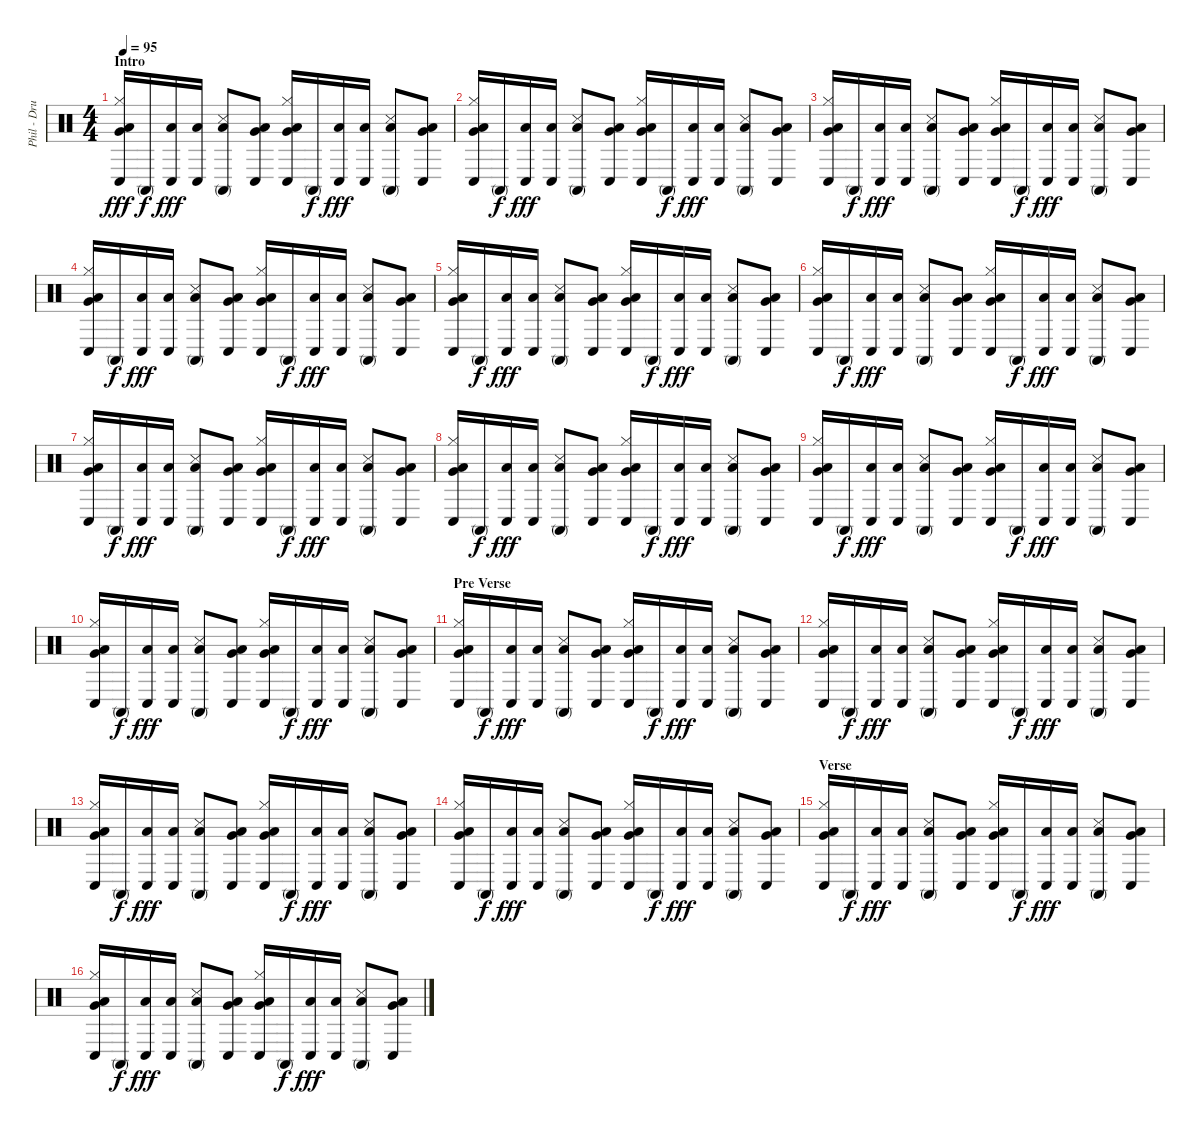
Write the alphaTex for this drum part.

\track ("Phil - Drums" "Phil - Dru") {instrument percussion}
\staff {score}
\articulation defaults
\ts (4 4)
\section ("" "Intro")
\tempo 95
\clef neutral
\ks c
("Hi-Hat (closed)" "Conga low (hit)" "Low Floor Tom (hit)" "Very Low Tom (hit)").16{dy fff} "Conga high (mute)".16{dy f} ("Conga low (hit)" "Low Tom (hit)").16{dy fff} ("Conga low (hit)" "Low Tom (hit)").16 ("Conga high (mute)" "Snare (side stick) 3" "Low Tom (hit)").8 ("Conga low (hit)" "Low Floor Tom (hit)" "Very Low Tom (hit)").8 ("Hi-Hat (closed)" "Conga low (hit)" "Low Floor Tom (hit)" "Very Low Tom (hit)").16 "Conga high (mute)".16{dy f} ("Conga low (hit)" "Low Tom (hit)").16{dy fff} ("Conga low (hit)" "Low Tom (hit)").16 ("Conga high (mute)" "Snare (side stick) 3" "Low Tom (hit)").8 ("Conga low (hit)" "Low Floor Tom (hit)" "Very Low Tom (hit)").8 |
("Hi-Hat (closed)" "Conga low (hit)" "Low Floor Tom (hit)" "Very Low Tom (hit)").16 "Conga high (mute)".16{dy f} ("Conga low (hit)" "Low Tom (hit)").16{dy fff} ("Conga low (hit)" "Low Tom (hit)").16 ("Conga high (mute)" "Snare (side stick) 3" "Low Tom (hit)").8 ("Conga low (hit)" "Low Floor Tom (hit)" "Very Low Tom (hit)").8 ("Hi-Hat (closed)" "Conga low (hit)" "Low Floor Tom (hit)" "Very Low Tom (hit)").16 "Conga high (mute)".16{dy f} ("Conga low (hit)" "Low Tom (hit)").16{dy fff} ("Conga low (hit)" "Low Tom (hit)").16 ("Conga high (mute)" "Snare (side stick) 3" "Low Tom (hit)").8 ("Conga low (hit)" "Low Floor Tom (hit)" "Very Low Tom (hit)").8 |
("Hi-Hat (closed)" "Conga low (hit)" "Low Floor Tom (hit)" "Very Low Tom (hit)").16 "Conga high (mute)".16{dy f} ("Conga low (hit)" "Low Tom (hit)").16{dy fff} ("Conga low (hit)" "Low Tom (hit)").16 ("Conga high (mute)" "Snare (side stick) 3" "Low Tom (hit)").8 ("Conga low (hit)" "Low Floor Tom (hit)" "Very Low Tom (hit)").8 ("Hi-Hat (closed)" "Conga low (hit)" "Low Floor Tom (hit)" "Very Low Tom (hit)").16 "Conga high (mute)".16{dy f} ("Conga low (hit)" "Low Tom (hit)").16{dy fff} ("Conga low (hit)" "Low Tom (hit)").16 ("Conga high (mute)" "Snare (side stick) 3" "Low Tom (hit)").8 ("Conga low (hit)" "Low Floor Tom (hit)" "Very Low Tom (hit)").8 |
("Hi-Hat (closed)" "Conga low (hit)" "Low Floor Tom (hit)" "Very Low Tom (hit)").16 "Conga high (mute)".16{dy f} ("Conga low (hit)" "Low Tom (hit)").16{dy fff} ("Conga low (hit)" "Low Tom (hit)").16 ("Conga high (mute)" "Snare (side stick) 3" "Low Tom (hit)").8 ("Conga low (hit)" "Low Floor Tom (hit)" "Very Low Tom (hit)").8 ("Hi-Hat (closed)" "Conga low (hit)" "Low Floor Tom (hit)" "Very Low Tom (hit)").16 "Conga high (mute)".16{dy f} ("Conga low (hit)" "Low Tom (hit)").16{dy fff} ("Conga low (hit)" "Low Tom (hit)").16 ("Conga high (mute)" "Snare (side stick) 3" "Low Tom (hit)").8 ("Conga low (hit)" "Low Floor Tom (hit)" "Very Low Tom (hit)").8 |
("Hi-Hat (closed)" "Conga low (hit)" "Low Floor Tom (hit)" "Very Low Tom (hit)").16 "Conga high (mute)".16{dy f} ("Conga low (hit)" "Low Tom (hit)").16{dy fff} ("Conga low (hit)" "Low Tom (hit)").16 ("Conga high (mute)" "Snare (side stick) 3" "Low Tom (hit)").8 ("Conga low (hit)" "Low Floor Tom (hit)" "Very Low Tom (hit)").8 ("Hi-Hat (closed)" "Conga low (hit)" "Low Floor Tom (hit)" "Very Low Tom (hit)").16 "Conga high (mute)".16{dy f} ("Conga low (hit)" "Low Tom (hit)").16{dy fff} ("Conga low (hit)" "Low Tom (hit)").16 ("Conga high (mute)" "Snare (side stick) 3" "Low Tom (hit)").8 ("Conga low (hit)" "Low Floor Tom (hit)" "Very Low Tom (hit)").8 |
("Hi-Hat (closed)" "Conga low (hit)" "Low Floor Tom (hit)" "Very Low Tom (hit)").16 "Conga high (mute)".16{dy f} ("Conga low (hit)" "Low Tom (hit)").16{dy fff} ("Conga low (hit)" "Low Tom (hit)").16 ("Conga high (mute)" "Snare (side stick) 3" "Low Tom (hit)").8 ("Conga low (hit)" "Low Floor Tom (hit)" "Very Low Tom (hit)").8 ("Hi-Hat (closed)" "Conga low (hit)" "Low Floor Tom (hit)" "Very Low Tom (hit)").16 "Conga high (mute)".16{dy f} ("Conga low (hit)" "Low Tom (hit)").16{dy fff} ("Conga low (hit)" "Low Tom (hit)").16 ("Conga high (mute)" "Snare (side stick) 3" "Low Tom (hit)").8 ("Conga low (hit)" "Low Floor Tom (hit)" "Very Low Tom (hit)").8 |
("Hi-Hat (closed)" "Conga low (hit)" "Low Floor Tom (hit)" "Very Low Tom (hit)").16 "Conga high (mute)".16{dy f} ("Conga low (hit)" "Low Tom (hit)").16{dy fff} ("Conga low (hit)" "Low Tom (hit)").16 ("Conga high (mute)" "Snare (side stick) 3" "Low Tom (hit)").8 ("Conga low (hit)" "Low Floor Tom (hit)" "Very Low Tom (hit)").8 ("Hi-Hat (closed)" "Conga low (hit)" "Low Floor Tom (hit)" "Very Low Tom (hit)").16 "Conga high (mute)".16{dy f} ("Conga low (hit)" "Low Tom (hit)").16{dy fff} ("Conga low (hit)" "Low Tom (hit)").16 ("Conga high (mute)" "Snare (side stick) 3" "Low Tom (hit)").8 ("Conga low (hit)" "Low Floor Tom (hit)" "Very Low Tom (hit)").8 |
("Hi-Hat (closed)" "Conga low (hit)" "Low Floor Tom (hit)" "Very Low Tom (hit)").16 "Conga high (mute)".16{dy f} ("Conga low (hit)" "Low Tom (hit)").16{dy fff} ("Conga low (hit)" "Low Tom (hit)").16 ("Conga high (mute)" "Snare (side stick) 3" "Low Tom (hit)").8 ("Conga low (hit)" "Low Floor Tom (hit)" "Very Low Tom (hit)").8 ("Hi-Hat (closed)" "Conga low (hit)" "Low Floor Tom (hit)" "Very Low Tom (hit)").16 "Conga high (mute)".16{dy f} ("Conga low (hit)" "Low Tom (hit)").16{dy fff} ("Conga low (hit)" "Low Tom (hit)").16 ("Conga high (mute)" "Snare (side stick) 3" "Low Tom (hit)").8 ("Conga low (hit)" "Low Floor Tom (hit)" "Very Low Tom (hit)").8 |
("Hi-Hat (closed)" "Conga low (hit)" "Low Floor Tom (hit)" "Very Low Tom (hit)").16 "Conga high (mute)".16{dy f} ("Conga low (hit)" "Low Tom (hit)").16{dy fff} ("Conga low (hit)" "Low Tom (hit)").16 ("Conga high (mute)" "Snare (side stick) 3" "Low Tom (hit)").8 ("Conga low (hit)" "Low Floor Tom (hit)" "Very Low Tom (hit)").8 ("Hi-Hat (closed)" "Conga low (hit)" "Low Floor Tom (hit)" "Very Low Tom (hit)").16 "Conga high (mute)".16{dy f} ("Conga low (hit)" "Low Tom (hit)").16{dy fff} ("Conga low (hit)" "Low Tom (hit)").16 ("Conga high (mute)" "Snare (side stick) 3" "Low Tom (hit)").8 ("Conga low (hit)" "Low Floor Tom (hit)" "Very Low Tom (hit)").8 |
("Hi-Hat (closed)" "Conga low (hit)" "Low Floor Tom (hit)" "Very Low Tom (hit)").16 "Conga high (mute)".16{dy f} ("Conga low (hit)" "Low Tom (hit)").16{dy fff} ("Conga low (hit)" "Low Tom (hit)").16 ("Conga high (mute)" "Snare (side stick) 3" "Low Tom (hit)").8 ("Conga low (hit)" "Low Floor Tom (hit)" "Very Low Tom (hit)").8 ("Hi-Hat (closed)" "Conga low (hit)" "Low Floor Tom (hit)" "Very Low Tom (hit)").16 "Conga high (mute)".16{dy f} ("Conga low (hit)" "Low Tom (hit)").16{dy fff} ("Conga low (hit)" "Low Tom (hit)").16 ("Conga high (mute)" "Snare (side stick) 3" "Low Tom (hit)").8 ("Conga low (hit)" "Low Floor Tom (hit)" "Very Low Tom (hit)").8 |
\section ("" "Pre Verse")
("Hi-Hat (closed)" "Conga low (hit)" "Low Floor Tom (hit)" "Very Low Tom (hit)").16 "Conga high (mute)".16{dy f} ("Conga low (hit)" "Low Tom (hit)").16{dy fff} ("Conga low (hit)" "Low Tom (hit)").16 ("Conga high (mute)" "Snare (side stick) 3" "Low Tom (hit)").8 ("Conga low (hit)" "Low Floor Tom (hit)" "Very Low Tom (hit)").8 ("Hi-Hat (closed)" "Conga low (hit)" "Low Floor Tom (hit)" "Very Low Tom (hit)").16 "Conga high (mute)".16{dy f} ("Conga low (hit)" "Low Tom (hit)").16{dy fff} ("Conga low (hit)" "Low Tom (hit)").16 ("Conga high (mute)" "Snare (side stick) 3" "Low Tom (hit)").8 ("Conga low (hit)" "Low Floor Tom (hit)" "Very Low Tom (hit)").8 |
("Hi-Hat (closed)" "Conga low (hit)" "Low Floor Tom (hit)" "Very Low Tom (hit)").16 "Conga high (mute)".16{dy f} ("Conga low (hit)" "Low Tom (hit)").16{dy fff} ("Conga low (hit)" "Low Tom (hit)").16 ("Conga high (mute)" "Snare (side stick) 3" "Low Tom (hit)").8 ("Conga low (hit)" "Low Floor Tom (hit)" "Very Low Tom (hit)").8 ("Hi-Hat (closed)" "Conga low (hit)" "Low Floor Tom (hit)" "Very Low Tom (hit)").16 "Conga high (mute)".16{dy f} ("Conga low (hit)" "Low Tom (hit)").16{dy fff} ("Conga low (hit)" "Low Tom (hit)").16 ("Conga high (mute)" "Snare (side stick) 3" "Low Tom (hit)").8 ("Conga low (hit)" "Low Floor Tom (hit)" "Very Low Tom (hit)").8 |
("Hi-Hat (closed)" "Conga low (hit)" "Low Floor Tom (hit)" "Very Low Tom (hit)").16 "Conga high (mute)".16{dy f} ("Conga low (hit)" "Low Tom (hit)").16{dy fff} ("Conga low (hit)" "Low Tom (hit)").16 ("Conga high (mute)" "Snare (side stick) 3" "Low Tom (hit)").8 ("Conga low (hit)" "Low Floor Tom (hit)" "Very Low Tom (hit)").8 ("Hi-Hat (closed)" "Conga low (hit)" "Low Floor Tom (hit)" "Very Low Tom (hit)").16 "Conga high (mute)".16{dy f} ("Conga low (hit)" "Low Tom (hit)").16{dy fff} ("Conga low (hit)" "Low Tom (hit)").16 ("Conga high (mute)" "Snare (side stick) 3" "Low Tom (hit)").8 ("Conga low (hit)" "Low Floor Tom (hit)" "Very Low Tom (hit)").8 |
("Hi-Hat (closed)" "Conga low (hit)" "Low Floor Tom (hit)" "Very Low Tom (hit)").16 "Conga high (mute)".16{dy f} ("Conga low (hit)" "Low Tom (hit)").16{dy fff} ("Conga low (hit)" "Low Tom (hit)").16 ("Conga high (mute)" "Snare (side stick) 3" "Low Tom (hit)").8 ("Conga low (hit)" "Low Floor Tom (hit)" "Very Low Tom (hit)").8 ("Hi-Hat (closed)" "Conga low (hit)" "Low Floor Tom (hit)" "Very Low Tom (hit)").16 "Conga high (mute)".16{dy f} ("Conga low (hit)" "Low Tom (hit)").16{dy fff} ("Conga low (hit)" "Low Tom (hit)").16 ("Conga high (mute)" "Snare (side stick) 3" "Low Tom (hit)").8 ("Conga low (hit)" "Low Floor Tom (hit)" "Very Low Tom (hit)").8 |
\section ("" "Verse")
("Hi-Hat (closed)" "Conga low (hit)" "Low Floor Tom (hit)" "Very Low Tom (hit)").16 "Conga high (mute)".16{dy f} ("Conga low (hit)" "Low Tom (hit)").16{dy fff} ("Conga low (hit)" "Low Tom (hit)").16 ("Conga high (mute)" "Snare (side stick) 3" "Low Tom (hit)").8 ("Conga low (hit)" "Low Floor Tom (hit)" "Very Low Tom (hit)").8 ("Hi-Hat (closed)" "Conga low (hit)" "Low Floor Tom (hit)" "Very Low Tom (hit)").16 "Conga high (mute)".16{dy f} ("Conga low (hit)" "Low Tom (hit)").16{dy fff} ("Conga low (hit)" "Low Tom (hit)").16 ("Conga high (mute)" "Snare (side stick) 3" "Low Tom (hit)").8 ("Conga low (hit)" "Low Floor Tom (hit)" "Very Low Tom (hit)").8 |
("Hi-Hat (closed)" "Conga low (hit)" "Low Floor Tom (hit)" "Very Low Tom (hit)").16 "Conga high (mute)".16{dy f} ("Conga low (hit)" "Low Tom (hit)").16{dy fff} ("Conga low (hit)" "Low Tom (hit)").16 ("Conga high (mute)" "Snare (side stick) 3" "Low Tom (hit)").8 ("Conga low (hit)" "Low Floor Tom (hit)" "Very Low Tom (hit)").8 ("Hi-Hat (closed)" "Conga low (hit)" "Low Floor Tom (hit)" "Very Low Tom (hit)").16 "Conga high (mute)".16{dy f} ("Conga low (hit)" "Low Tom (hit)").16{dy fff} ("Conga low (hit)" "Low Tom (hit)").16 ("Conga high (mute)" "Snare (side stick) 3" "Low Tom (hit)").8 ("Conga low (hit)" "Low Floor Tom (hit)" "Very Low Tom (hit)").8
